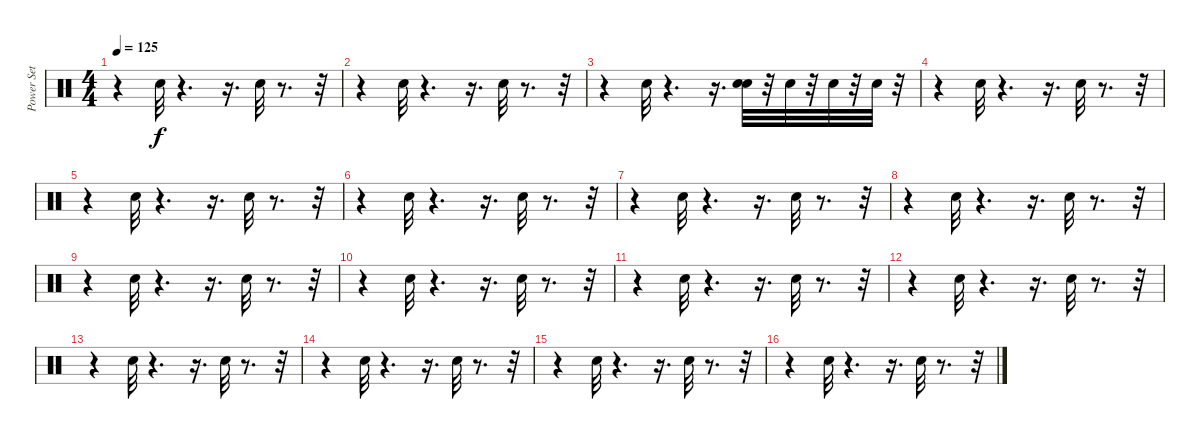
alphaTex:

\track ("Power Set" "Power Set") {instrument percussion}
\staff {score}
\articulation defaults
\ts (4 4)
\tempo 125
\clef neutral
\ks c
r.4{dy f} "Snare (hit) 2".32 r.4{d} r.16{d} "Snare (hit) 2".32 r.8{d} r.32 |
r.4 "Snare (hit) 2".32 r.4{d} r.16{d} "Snare (hit) 2".32 r.8{d} r.32 |
r.4 "Snare (hit) 2".32 r.4{d} r.16{d} ("Snare (hit) 2" "Electric Snare (hit)").32 r.32 "Electric Snare (hit)".32 r.32 "Electric Snare (hit)".32 r.32 "Electric Snare (hit)".32 r.32 |
r.4 "Snare (hit) 2".32 r.4{d} r.16{d} "Snare (hit) 2".32 r.8{d} r.32 |
r.4 "Snare (hit) 2".32 r.4{d} r.16{d} "Snare (hit) 2".32 r.8{d} r.32 |
r.4 "Snare (hit) 2".32 r.4{d} r.16{d} "Snare (hit) 2".32 r.8{d} r.32 |
r.4 "Snare (hit) 2".32 r.4{d} r.16{d} "Snare (hit) 2".32 r.8{d} r.32 |
r.4 "Snare (hit) 2".32 r.4{d} r.16{d} "Snare (hit) 2".32 r.8{d} r.32 |
r.4 "Snare (hit) 2".32 r.4{d} r.16{d} "Snare (hit) 2".32 r.8{d} r.32 |
r.4 "Snare (hit) 2".32 r.4{d} r.16{d} "Snare (hit) 2".32 r.8{d} r.32 |
r.4 "Snare (hit) 2".32 r.4{d} r.16{d} "Snare (hit) 2".32 r.8{d} r.32 |
r.4 "Snare (hit) 2".32 r.4{d} r.16{d} "Snare (hit) 2".32 r.8{d} r.32 |
r.4 "Snare (hit) 2".32 r.4{d} r.16{d} "Snare (hit) 2".32 r.8{d} r.32 |
r.4 "Snare (hit) 2".32 r.4{d} r.16{d} "Snare (hit) 2".32 r.8{d} r.32 |
r.4 "Snare (hit) 2".32 r.4{d} r.16{d} "Snare (hit) 2".32 r.8{d} r.32 |
r.4 "Snare (hit) 2".32 r.4{d} r.16{d} "Snare (hit) 2".32 r.8{d} r.32
